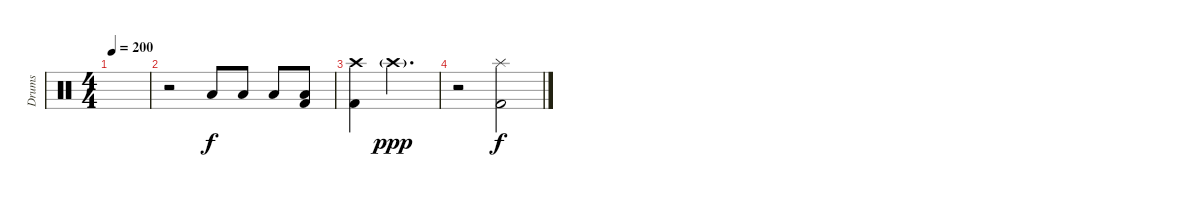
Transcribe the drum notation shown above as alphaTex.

\track ("Drums" "Drums") {instrument percussion}
\staff {score}
\articulation defaults
\ts (4 4)
\tempo 200
\clef neutral
\ks c
|
r.2 "Low Tom (hit)".8{dy f} "Low Tom (hit)".8 "Low Tom (hit)".8 ("Low Tom (hit)" "Kick (hit) 2").8 |
("Crash high (hit)" "Kick (hit) 2").4 "Crash high (hit)"{g}.2{d dy ppp} |
r.2 ("Splash (hit)" "Kick (hit) 2").2{dy f}
